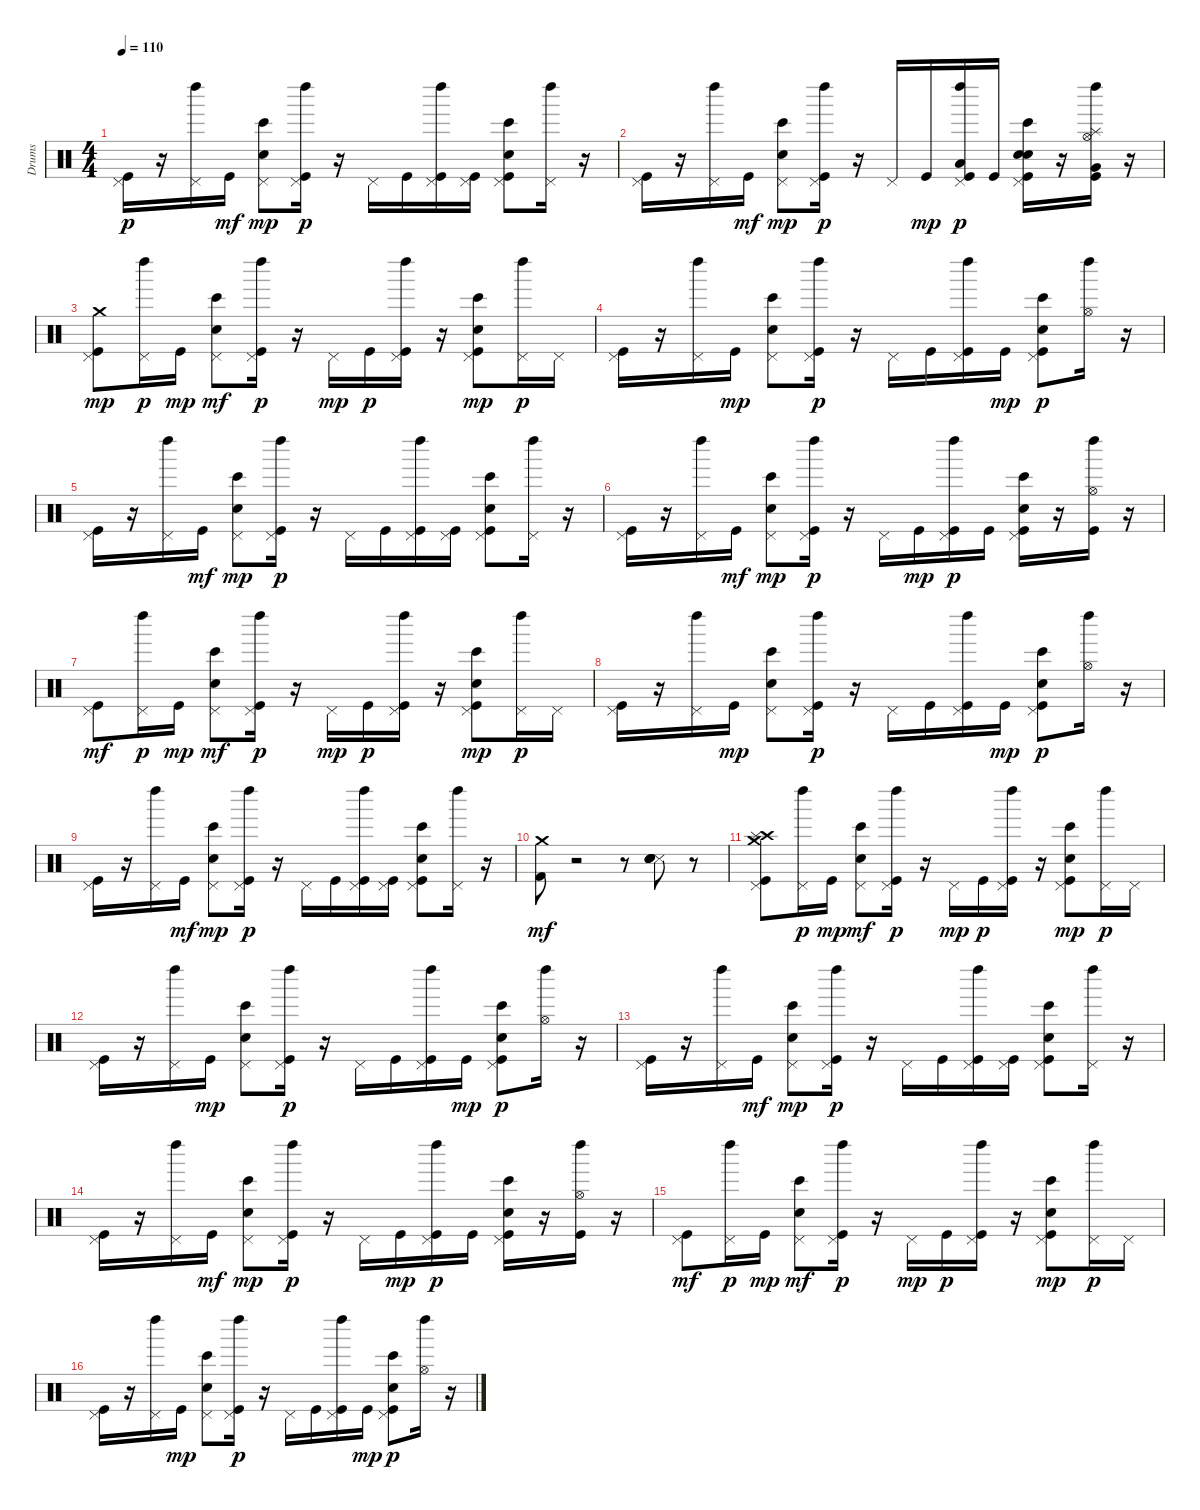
\track ("Drums" "Drums") {instrument percussion}
\staff {score}
\articulation defaults
\ts (4 4)
\tempo 110
\clef neutral
\ks c
("Kick (hit)" "Pedal Hi-Hat (hit)").16{dy p} r.16 ("Pedal Hi-Hat (hit)" "Left Maraca (hit)").16 "Kick (hit)".16{dy mf} ("Bongo High (hit)" "Electric Snare (hit)" "Pedal Hi-Hat (hit)").8{dy mp} ("Kick (hit)" "Pedal Hi-Hat (hit)" "Left Maraca (hit)").16{dy p} r.16 "Pedal Hi-Hat (hit)".16 "Kick (hit)".16 ("Kick (hit)" "Pedal Hi-Hat (hit)" "Left Maraca (hit)").16 ("Kick (hit)" "Pedal Hi-Hat (hit)").16 ("Bongo High (hit)" "Kick (hit)" "Electric Snare (hit)" "Pedal Hi-Hat (hit)").8 ("Pedal Hi-Hat (hit)" "Left Maraca (hit)").16 r.16 |
("Kick (hit)" "Pedal Hi-Hat (hit)").16 r.16 ("Pedal Hi-Hat (hit)" "Left Maraca (hit)").16 "Kick (hit)".16{dy mf} ("Bongo High (hit)" "Electric Snare (hit)" "Pedal Hi-Hat (hit)").8{dy mp} ("Kick (hit)" "Pedal Hi-Hat (hit)" "Left Maraca (hit)").16{dy p} r.16 "Pedal Hi-Hat (hit)".16 "Kick (hit)".16{dy mp} ("Kick (hit)" "Pedal Hi-Hat (hit)" "Low Tom (hit)" "Left Maraca (hit)").16{dy p} "Kick (hit)".16 ("Bongo High (hit)" "Kick (hit)" "Snare (hit) 2" "Electric Snare (hit)" "Pedal Hi-Hat (hit)").16 r.16 ("Kick (hit)" "Very Low Tom (hit)" "Hi-Hat (open)" "Splash (hit)" "Left Maraca (hit)").16 r.16 |
("Kick (hit)" "Pedal Hi-Hat (hit)" "Crash medium (hit)").8{dy mp} ("Pedal Hi-Hat (hit)" "Left Maraca (hit)").16{dy p} "Kick (hit)".16{dy mp} ("Bongo High (hit)" "Electric Snare (hit)" "Pedal Hi-Hat (hit)").8{dy mf} ("Kick (hit)" "Pedal Hi-Hat (hit)" "Left Maraca (hit)").16{dy p} r.16 "Pedal Hi-Hat (hit)".16{dy mp} "Kick (hit)".16{dy p} ("Kick (hit)" "Pedal Hi-Hat (hit)" "Left Maraca (hit)").16 r.16 ("Bongo High (hit)" "Kick (hit)" "Electric Snare (hit)" "Pedal Hi-Hat (hit)").8{dy mp} ("Pedal Hi-Hat (hit)" "Left Maraca (hit)").16{dy p} "Pedal Hi-Hat (hit)".16 |
("Kick (hit)" "Pedal Hi-Hat (hit)").16 r.16 ("Pedal Hi-Hat (hit)" "Left Maraca (hit)").16 "Kick (hit)".16{dy mp} ("Bongo High (hit)" "Electric Snare (hit)" "Pedal Hi-Hat (hit)").8 ("Kick (hit)" "Pedal Hi-Hat (hit)" "Left Maraca (hit)").16{dy p} r.16 "Pedal Hi-Hat (hit)".16 "Kick (hit)".16 ("Kick (hit)" "Pedal Hi-Hat (hit)" "Left Maraca (hit)").16 "Kick (hit)".16{dy mp} ("Bongo High (hit)" "Kick (hit)" "Electric Snare (hit)" "Pedal Hi-Hat (hit)").8{dy p} ("Hi-Hat (open)" "Left Maraca (hit)").16 r.16 |
("Kick (hit)" "Pedal Hi-Hat (hit)").16 r.16 ("Pedal Hi-Hat (hit)" "Left Maraca (hit)").16 "Kick (hit)".16{dy mf} ("Bongo High (hit)" "Electric Snare (hit)" "Pedal Hi-Hat (hit)").8{dy mp} ("Kick (hit)" "Pedal Hi-Hat (hit)" "Left Maraca (hit)").16{dy p} r.16 "Pedal Hi-Hat (hit)".16 "Kick (hit)".16 ("Kick (hit)" "Pedal Hi-Hat (hit)" "Left Maraca (hit)").16 ("Kick (hit)" "Pedal Hi-Hat (hit)").16 ("Bongo High (hit)" "Kick (hit)" "Electric Snare (hit)" "Pedal Hi-Hat (hit)").8 ("Pedal Hi-Hat (hit)" "Left Maraca (hit)").16 r.16 |
("Kick (hit)" "Pedal Hi-Hat (hit)").16 r.16 ("Pedal Hi-Hat (hit)" "Left Maraca (hit)").16 "Kick (hit)".16{dy mf} ("Bongo High (hit)" "Electric Snare (hit)" "Pedal Hi-Hat (hit)").8{dy mp} ("Kick (hit)" "Pedal Hi-Hat (hit)" "Left Maraca (hit)").16{dy p} r.16 "Pedal Hi-Hat (hit)".16 "Kick (hit)".16{dy mp} ("Kick (hit)" "Pedal Hi-Hat (hit)" "Left Maraca (hit)").16{dy p} "Kick (hit)".16 ("Bongo High (hit)" "Kick (hit)" "Electric Snare (hit)" "Pedal Hi-Hat (hit)").16 r.16 ("Kick (hit)" "Hi-Hat (open)" "Left Maraca (hit)").16 r.16 |
("Kick (hit)" "Pedal Hi-Hat (hit)").8{dy mf} ("Pedal Hi-Hat (hit)" "Left Maraca (hit)").16{dy p} "Kick (hit)".16{dy mp} ("Bongo High (hit)" "Electric Snare (hit)" "Pedal Hi-Hat (hit)").8{dy mf} ("Kick (hit)" "Pedal Hi-Hat (hit)" "Left Maraca (hit)").16{dy p} r.16 "Pedal Hi-Hat (hit)".16{dy mp} "Kick (hit)".16{dy p} ("Kick (hit)" "Pedal Hi-Hat (hit)" "Left Maraca (hit)").16 r.16 ("Bongo High (hit)" "Kick (hit)" "Electric Snare (hit)" "Pedal Hi-Hat (hit)").8{dy mp} ("Pedal Hi-Hat (hit)" "Left Maraca (hit)").16{dy p} "Pedal Hi-Hat (hit)".16 |
("Kick (hit)" "Pedal Hi-Hat (hit)").16 r.16 ("Pedal Hi-Hat (hit)" "Left Maraca (hit)").16 "Kick (hit)".16{dy mp} ("Bongo High (hit)" "Electric Snare (hit)" "Pedal Hi-Hat (hit)").8 ("Kick (hit)" "Pedal Hi-Hat (hit)" "Left Maraca (hit)").16{dy p} r.16 "Pedal Hi-Hat (hit)".16 "Kick (hit)".16 ("Kick (hit)" "Pedal Hi-Hat (hit)" "Left Maraca (hit)").16 "Kick (hit)".16{dy mp} ("Bongo High (hit)" "Kick (hit)" "Electric Snare (hit)" "Pedal Hi-Hat (hit)").8{dy p} ("Hi-Hat (open)" "Left Maraca (hit)").16 r.16 |
("Kick (hit)" "Pedal Hi-Hat (hit)").16 r.16 ("Pedal Hi-Hat (hit)" "Left Maraca (hit)").16 "Kick (hit)".16{dy mf} ("Bongo High (hit)" "Electric Snare (hit)" "Pedal Hi-Hat (hit)").8{dy mp} ("Kick (hit)" "Pedal Hi-Hat (hit)" "Left Maraca (hit)").16{dy p} r.16 "Pedal Hi-Hat (hit)".16 "Kick (hit)".16 ("Kick (hit)" "Pedal Hi-Hat (hit)" "Left Maraca (hit)").16 ("Kick (hit)" "Pedal Hi-Hat (hit)").16 ("Bongo High (hit)" "Kick (hit)" "Electric Snare (hit)" "Pedal Hi-Hat (hit)").8 ("Pedal Hi-Hat (hit)" "Left Maraca (hit)").16 r.16 |
("Kick (hit) 2" "Crash medium (hit)").8{dy mf} r.2 r.8 ("Snare (side stick) 3" "Snare (hit) 2" "Hand Clap (hit)" "Electric Snare (hit)").8 r.8 |
("Kick (hit)" "Pedal Hi-Hat (hit)" "Crash high (hit)" "Splash (hit)" "Crash medium (hit)").8 ("Pedal Hi-Hat (hit)" "Left Maraca (hit)").16{dy p} "Kick (hit)".16{dy mp} ("Bongo High (hit)" "Electric Snare (hit)" "Pedal Hi-Hat (hit)").8{dy mf} ("Kick (hit)" "Pedal Hi-Hat (hit)" "Left Maraca (hit)").16{dy p} r.16 "Pedal Hi-Hat (hit)".16{dy mp} "Kick (hit)".16{dy p} ("Kick (hit)" "Pedal Hi-Hat (hit)" "Left Maraca (hit)").16 r.16 ("Bongo High (hit)" "Kick (hit)" "Electric Snare (hit)" "Pedal Hi-Hat (hit)").8{dy mp} ("Pedal Hi-Hat (hit)" "Left Maraca (hit)").16{dy p} "Pedal Hi-Hat (hit)".16 |
("Kick (hit)" "Pedal Hi-Hat (hit)").16 r.16 ("Pedal Hi-Hat (hit)" "Left Maraca (hit)").16 "Kick (hit)".16{dy mp} ("Bongo High (hit)" "Electric Snare (hit)" "Pedal Hi-Hat (hit)").8 ("Kick (hit)" "Pedal Hi-Hat (hit)" "Left Maraca (hit)").16{dy p} r.16 "Pedal Hi-Hat (hit)".16 "Kick (hit)".16 ("Kick (hit)" "Pedal Hi-Hat (hit)" "Left Maraca (hit)").16 "Kick (hit)".16{dy mp} ("Bongo High (hit)" "Kick (hit)" "Electric Snare (hit)" "Pedal Hi-Hat (hit)").8{dy p} ("Hi-Hat (open)" "Left Maraca (hit)").16 r.16 |
("Kick (hit)" "Pedal Hi-Hat (hit)").16 r.16 ("Pedal Hi-Hat (hit)" "Left Maraca (hit)").16 "Kick (hit)".16{dy mf} ("Bongo High (hit)" "Electric Snare (hit)" "Pedal Hi-Hat (hit)").8{dy mp} ("Kick (hit)" "Pedal Hi-Hat (hit)" "Left Maraca (hit)").16{dy p} r.16 "Pedal Hi-Hat (hit)".16 "Kick (hit)".16 ("Kick (hit)" "Pedal Hi-Hat (hit)" "Left Maraca (hit)").16 ("Kick (hit)" "Pedal Hi-Hat (hit)").16 ("Bongo High (hit)" "Kick (hit)" "Electric Snare (hit)" "Pedal Hi-Hat (hit)").8 ("Pedal Hi-Hat (hit)" "Left Maraca (hit)").16 r.16 |
("Kick (hit)" "Pedal Hi-Hat (hit)").16 r.16 ("Pedal Hi-Hat (hit)" "Left Maraca (hit)").16 "Kick (hit)".16{dy mf} ("Bongo High (hit)" "Electric Snare (hit)" "Pedal Hi-Hat (hit)").8{dy mp} ("Kick (hit)" "Pedal Hi-Hat (hit)" "Left Maraca (hit)").16{dy p} r.16 "Pedal Hi-Hat (hit)".16 "Kick (hit)".16{dy mp} ("Kick (hit)" "Pedal Hi-Hat (hit)" "Left Maraca (hit)").16{dy p} "Kick (hit)".16 ("Bongo High (hit)" "Kick (hit)" "Electric Snare (hit)" "Pedal Hi-Hat (hit)").16 r.16 ("Kick (hit)" "Hi-Hat (open)" "Left Maraca (hit)").16 r.16 |
("Kick (hit)" "Pedal Hi-Hat (hit)").8{dy mf} ("Pedal Hi-Hat (hit)" "Left Maraca (hit)").16{dy p} "Kick (hit)".16{dy mp} ("Bongo High (hit)" "Electric Snare (hit)" "Pedal Hi-Hat (hit)").8{dy mf} ("Kick (hit)" "Pedal Hi-Hat (hit)" "Left Maraca (hit)").16{dy p} r.16 "Pedal Hi-Hat (hit)".16{dy mp} "Kick (hit)".16{dy p} ("Kick (hit)" "Pedal Hi-Hat (hit)" "Left Maraca (hit)").16 r.16 ("Bongo High (hit)" "Kick (hit)" "Electric Snare (hit)" "Pedal Hi-Hat (hit)").8{dy mp} ("Pedal Hi-Hat (hit)" "Left Maraca (hit)").16{dy p} "Pedal Hi-Hat (hit)".16 |
("Kick (hit)" "Pedal Hi-Hat (hit)").16 r.16 ("Pedal Hi-Hat (hit)" "Left Maraca (hit)").16 "Kick (hit)".16{dy mp} ("Bongo High (hit)" "Electric Snare (hit)" "Pedal Hi-Hat (hit)").8 ("Kick (hit)" "Pedal Hi-Hat (hit)" "Left Maraca (hit)").16{dy p} r.16 "Pedal Hi-Hat (hit)".16 "Kick (hit)".16 ("Kick (hit)" "Pedal Hi-Hat (hit)" "Left Maraca (hit)").16 "Kick (hit)".16{dy mp} ("Bongo High (hit)" "Kick (hit)" "Electric Snare (hit)" "Pedal Hi-Hat (hit)").8{dy p} ("Hi-Hat (open)" "Left Maraca (hit)").16 r.16
